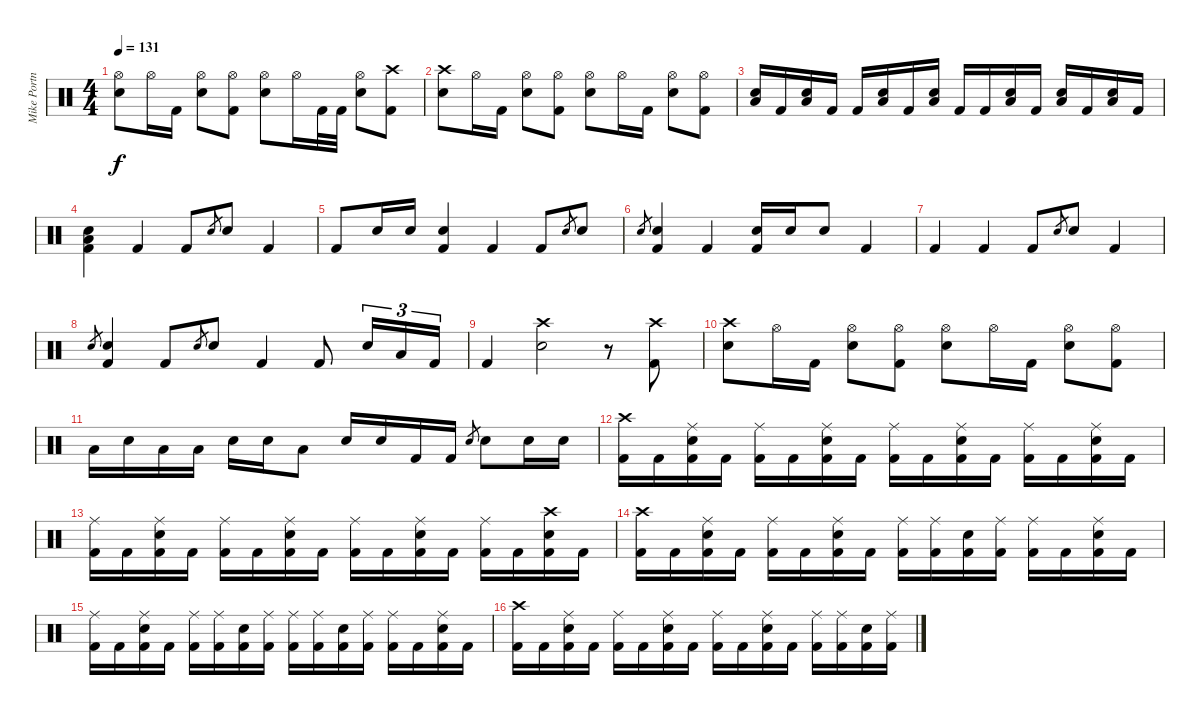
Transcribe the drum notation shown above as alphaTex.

\track ("Mike Portnoy" "Mike Portn") {instrument percussion}
\staff {score}
\articulation defaults
\ts (4 4)
\tempo 131
\clef neutral
\ks c
("Hi-Hat (open)" "Snare (hit) 2").8{dy f} "Hi-Hat (open)".16 "Kick (hit) 2".16 ("Hi-Hat (open)" "Snare (hit) 2").8 ("Hi-Hat (open)" "Kick (hit) 2").8 ("Hi-Hat (open)" "Snare (hit) 2").8 "Hi-Hat (open)".16 "Kick (hit) 2".32 "Kick (hit) 2".32 ("Hi-Hat (open)" "Snare (hit) 2").8 ("Crash high (hit)" "Kick (hit) 2").8 |
("Crash high (hit)" "Snare (hit) 2").8 "Hi-Hat (open)".16 "Kick (hit) 2".16 ("Hi-Hat (open)" "Snare (hit) 2").8 ("Hi-Hat (open)" "Kick (hit) 2").8 ("Hi-Hat (open)" "Snare (hit) 2").8 "Hi-Hat (open)".16 "Kick (hit) 2".16 ("Hi-Hat (open)" "Snare (hit) 2").8 ("Hi-Hat (open)" "Kick (hit) 2").8 |
("Snare (hit) 2" "Low Floor Tom (hit)").16 "Kick (hit) 2".16 ("Snare (hit) 2" "Low Floor Tom (hit)").16 "Kick (hit) 2".16 "Kick (hit) 2".16 ("Snare (hit) 2" "Low Floor Tom (hit)").16 "Kick (hit) 2".16 ("Snare (hit) 2" "Low Floor Tom (hit)").16 "Kick (hit) 2".16 "Kick (hit) 2".16 ("Snare (hit) 2" "Low Floor Tom (hit)").16 "Kick (hit) 2".16 ("Snare (hit) 2" "Low Floor Tom (hit)").16 "Kick (hit) 2".16 ("Snare (hit) 2" "Low Floor Tom (hit)").16 "Kick (hit) 2".16 |
("Snare (hit) 2" "Low Floor Tom (hit)" "Kick (hit) 2").4 "Kick (hit) 2".4 "Kick (hit) 2".8 "Snare (hit) 2".8{gr} "Snare (hit) 2".8 "Kick (hit) 2".4 |
"Kick (hit) 2".8 "Snare (hit) 2".16 "Snare (hit) 2".16 ("Snare (hit) 2" "Kick (hit) 2").4 "Kick (hit) 2".4 "Kick (hit) 2".8 "Snare (hit) 2".8{gr} "Snare (hit) 2".8 |
"Snare (hit) 2".8{gr} ("Snare (hit) 2" "Kick (hit) 2").4 "Kick (hit) 2".4 ("Snare (hit) 2" "Kick (hit) 2").16 "Snare (hit) 2".16 "Snare (hit) 2".8 "Kick (hit) 2".4 |
"Kick (hit) 2".4 "Kick (hit) 2".4 "Kick (hit) 2".8 "Snare (hit) 2".8{gr} "Snare (hit) 2".8 "Kick (hit) 2".4 |
"Snare (hit) 2".8{gr} ("Snare (hit) 2" "Kick (hit) 2").4 "Kick (hit) 2".8 "Snare (hit) 2".8{gr} "Snare (hit) 2".8 "Kick (hit) 2".4 "Kick (hit) 2".8 "Snare (hit) 2".16{tu (3 2)} "Low Tom (hit)".16{tu (3 2)} "Kick (hit) 2".16{tu (3 2)} |
"Kick (hit) 2".4 ("Crash high (hit)" "Snare (hit) 2").2 r.8 ("Crash high (hit)" "Kick (hit) 2").8 |
("Crash high (hit)" "Snare (hit) 2").8 "Hi-Hat (open)".16 "Kick (hit) 2".16 ("Hi-Hat (open)" "Snare (hit) 2").8 ("Hi-Hat (open)" "Kick (hit) 2").8 ("Hi-Hat (open)" "Snare (hit) 2").8 "Hi-Hat (open)".16 "Kick (hit) 2".16 ("Hi-Hat (open)" "Snare (hit) 2").8 ("Hi-Hat (open)" "Kick (hit) 2").8 |
"Low Tom (hit)".16 "Snare (hit) 2".16 "Low Tom (hit)".16 "Low Tom (hit)".16 "Snare (hit) 2".16 "Snare (hit) 2".16 "Low Tom (hit)".8 "Snare (hit) 2".16 "Snare (hit) 2".16 "Kick (hit) 2".16 "Kick (hit) 2".16 "Snare (hit) 2".8{gr} "Snare (hit) 2".8 "Snare (hit) 2".16 "Snare (hit) 2".16 |
("Crash high (hit)" "Kick (hit) 2").16 "Kick (hit) 2".16 ("Ride (middle)" "Snare (hit) 2" "Kick (hit) 2").16 "Kick (hit) 2".16 ("Ride (middle)" "Kick (hit) 2").16 "Kick (hit) 2".16 ("Ride (middle)" "Snare (hit) 2" "Kick (hit) 2").16 "Kick (hit) 2".16 ("Ride (middle)" "Kick (hit) 2").16 "Kick (hit) 2".16 ("Ride (middle)" "Snare (hit) 2" "Kick (hit) 2").16 "Kick (hit) 2".16 ("Ride (middle)" "Kick (hit) 2").16 "Kick (hit) 2".16 ("Ride (middle)" "Snare (hit) 2" "Kick (hit) 2").16 "Kick (hit) 2".16 |
("Ride (middle)" "Kick (hit) 2").16 "Kick (hit) 2".16 ("Ride (middle)" "Snare (hit) 2" "Kick (hit) 2").16 "Kick (hit) 2".16 ("Ride (middle)" "Kick (hit) 2").16 "Kick (hit) 2".16 ("Ride (middle)" "Snare (hit) 2" "Kick (hit) 2").16 "Kick (hit) 2".16 ("Ride (middle)" "Kick (hit) 2").16 "Kick (hit) 2".16 ("Ride (middle)" "Snare (hit) 2" "Kick (hit) 2").16 "Kick (hit) 2".16 ("Ride (middle)" "Kick (hit) 2").16 "Kick (hit) 2".16 ("Crash high (hit)" "Snare (hit) 2" "Kick (hit) 2").16 "Kick (hit) 2".16 |
("Crash high (hit)" "Kick (hit) 2").16 "Kick (hit) 2".16 ("Ride (middle)" "Snare (hit) 2" "Kick (hit) 2").16 "Kick (hit) 2".16 ("Ride (middle)" "Kick (hit) 2").16 "Kick (hit) 2".16 ("Ride (middle)" "Snare (hit) 2" "Kick (hit) 2").16 "Kick (hit) 2".16 ("Ride (middle)" "Kick (hit) 2").16 ("Ride (middle)" "Kick (hit) 2").16 ("Snare (hit) 2" "Kick (hit) 2").16 ("Ride (middle)" "Kick (hit) 2").16 ("Ride (middle)" "Kick (hit) 2").16 "Kick (hit) 2".16 ("Ride (middle)" "Snare (hit) 2" "Kick (hit) 2").16 "Kick (hit) 2".16 |
("Ride (middle)" "Kick (hit) 2").16 "Kick (hit) 2".16 ("Ride (middle)" "Snare (hit) 2" "Kick (hit) 2").16 "Kick (hit) 2".16 ("Ride (middle)" "Kick (hit) 2").16 ("Ride (middle)" "Kick (hit) 2").16 ("Snare (hit) 2" "Kick (hit) 2").16 ("Ride (middle)" "Kick (hit) 2").16 ("Ride (middle)" "Kick (hit) 2").16 ("Ride (middle)" "Kick (hit) 2").16 ("Snare (hit) 2" "Kick (hit) 2").16 ("Ride (middle)" "Kick (hit) 2").16 ("Ride (middle)" "Kick (hit) 2").16 "Kick (hit) 2".16 ("Ride (middle)" "Snare (hit) 2" "Kick (hit) 2").16 "Kick (hit) 2".16 |
("Crash high (hit)" "Kick (hit) 2").16 "Kick (hit) 2".16 ("Ride (middle)" "Snare (hit) 2" "Kick (hit) 2").16 "Kick (hit) 2".16 ("Ride (middle)" "Kick (hit) 2").16 "Kick (hit) 2".16 ("Ride (middle)" "Snare (hit) 2" "Kick (hit) 2").16 "Kick (hit) 2".16 ("Ride (middle)" "Kick (hit) 2").16 "Kick (hit) 2".16 ("Ride (middle)" "Snare (hit) 2" "Kick (hit) 2").16 "Kick (hit) 2".16 ("Ride (middle)" "Kick (hit) 2").16 ("Ride (middle)" "Kick (hit) 2").16 ("Snare (hit) 2" "Kick (hit) 2").16 ("Ride (middle)" "Kick (hit) 2").16
